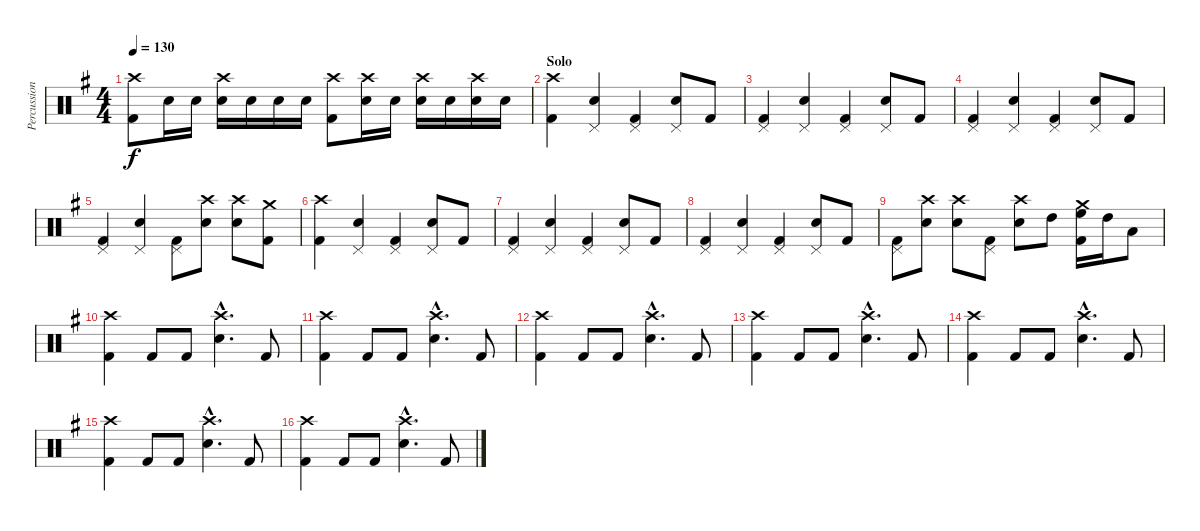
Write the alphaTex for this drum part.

\track ("Percussions" "Percussion") {instrument percussion}
\staff {score}
\articulation defaults
\ts (4 4)
\tempo 130
\clef neutral
\ks eminor
("Crash high (hit)" "Kick (hit) 2").8{dy f} "Electric Snare (hit)".16 "Electric Snare (hit)".16 ("Crash high (hit)" "Electric Snare (hit)").16 "Electric Snare (hit)".16 "Electric Snare (hit)".16 "Electric Snare (hit)".16 ("Crash high (hit)" "Kick (hit) 2").8 ("Crash high (hit)" "Electric Snare (hit)").16 "Electric Snare (hit)".16 ("Crash high (hit)" "Electric Snare (hit)").16 "Electric Snare (hit)".16 ("Crash high (hit)" "Electric Snare (hit)").16 "Electric Snare (hit)".16 |
\section ("" "Solo")
("Crash high (hit)" "Kick (hit) 2").4 ("Pedal Hi-Hat (hit)" "Electric Snare (hit)").4 ("Pedal Hi-Hat (hit)" "Kick (hit) 2").4 ("Pedal Hi-Hat (hit)" "Electric Snare (hit)").8 "Kick (hit) 2".8 |
("Pedal Hi-Hat (hit)" "Kick (hit) 2").4 ("Pedal Hi-Hat (hit)" "Electric Snare (hit)").4 ("Pedal Hi-Hat (hit)" "Kick (hit) 2").4 ("Pedal Hi-Hat (hit)" "Electric Snare (hit)").8 "Kick (hit) 2".8 |
("Pedal Hi-Hat (hit)" "Kick (hit) 2").4 ("Pedal Hi-Hat (hit)" "Electric Snare (hit)").4 ("Pedal Hi-Hat (hit)" "Kick (hit) 2").4 ("Pedal Hi-Hat (hit)" "Electric Snare (hit)").8 "Kick (hit) 2".8 |
("Pedal Hi-Hat (hit)" "Kick (hit) 2").4 ("Pedal Hi-Hat (hit)" "Electric Snare (hit)").4 ("Pedal Hi-Hat (hit)" "Kick (hit) 2").8 ("Crash high (hit)" "Electric Snare (hit)").8 ("Crash high (hit)" "Electric Snare (hit)").8 ("Crash medium (hit)" "Kick (hit) 2").8 |
("Crash high (hit)" "Kick (hit) 2").4 ("Pedal Hi-Hat (hit)" "Electric Snare (hit)").4 ("Pedal Hi-Hat (hit)" "Kick (hit) 2").4 ("Pedal Hi-Hat (hit)" "Electric Snare (hit)").8 "Kick (hit) 2".8 |
("Pedal Hi-Hat (hit)" "Kick (hit) 2").4 ("Pedal Hi-Hat (hit)" "Electric Snare (hit)").4 ("Pedal Hi-Hat (hit)" "Kick (hit) 2").4 ("Pedal Hi-Hat (hit)" "Electric Snare (hit)").8 "Kick (hit) 2".8 |
("Pedal Hi-Hat (hit)" "Kick (hit) 2").4 ("Pedal Hi-Hat (hit)" "Electric Snare (hit)").4 ("Pedal Hi-Hat (hit)" "Kick (hit) 2").4 ("Pedal Hi-Hat (hit)" "Electric Snare (hit)").8 "Kick (hit) 2".8 |
("Pedal Hi-Hat (hit)" "Kick (hit) 2").8 ("Crash high (hit)" "Electric Snare (hit)").8 ("Crash high (hit)" "Electric Snare (hit)").8 ("Pedal Hi-Hat (hit)" "Kick (hit) 2").8 ("Crash high (hit)" "Electric Snare (hit)").8 "High Tom (hit)".8 ("Crash medium (hit)" "High Floor Tom (hit)" "Kick (hit) 2").16 "High Tom (hit)".16 "Low Tom (hit)".8 |
("Crash high (hit)" "Kick (hit) 2").4 "Kick (hit) 2".8 "Kick (hit) 2".8 ("Crash high (hit)"{hac} "Electric Snare (hit)"{hac}).4{d} "Kick (hit) 2".8 |
("Crash high (hit)" "Kick (hit) 2").4 "Kick (hit) 2".8 "Kick (hit) 2".8 ("Crash high (hit)"{hac} "Electric Snare (hit)"{hac}).4{d} "Kick (hit) 2".8 |
("Crash high (hit)" "Kick (hit) 2").4 "Kick (hit) 2".8 "Kick (hit) 2".8 ("Crash high (hit)"{hac} "Electric Snare (hit)"{hac}).4{d} "Kick (hit) 2".8 |
("Crash high (hit)" "Kick (hit) 2").4 "Kick (hit) 2".8 "Kick (hit) 2".8 ("Crash high (hit)"{hac} "Electric Snare (hit)"{hac}).4{d} "Kick (hit) 2".8 |
("Crash high (hit)" "Kick (hit) 2").4 "Kick (hit) 2".8 "Kick (hit) 2".8 ("Crash high (hit)"{hac} "Electric Snare (hit)"{hac}).4{d} "Kick (hit) 2".8 |
("Crash high (hit)" "Kick (hit) 2").4 "Kick (hit) 2".8 "Kick (hit) 2".8 ("Crash high (hit)"{hac} "Electric Snare (hit)"{hac}).4{d} "Kick (hit) 2".8 |
("Crash high (hit)" "Kick (hit) 2").4 "Kick (hit) 2".8 "Kick (hit) 2".8 ("Crash high (hit)"{hac} "Electric Snare (hit)"{hac}).4{d} "Kick (hit) 2".8
